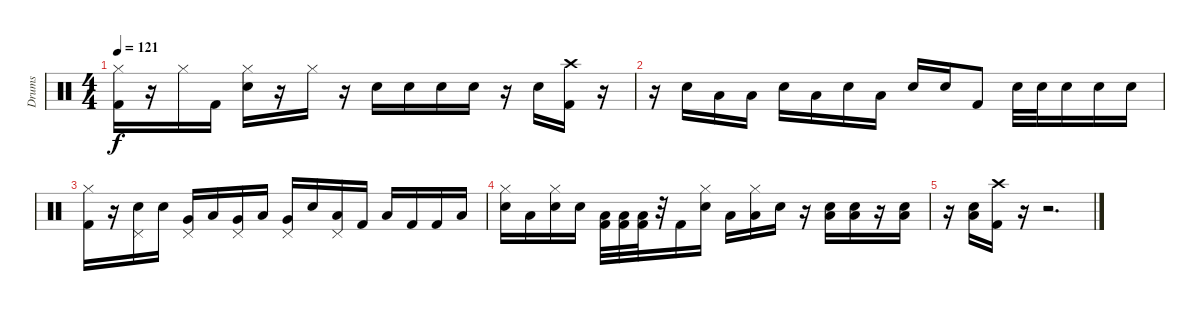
\track ("Drums" "Drums") {instrument percussion}
\staff {score}
\articulation defaults
\ts (4 4)
\tempo 121
\clef neutral
\ks c
("Hi-Hat (closed)" "Kick (hit) 2").16{dy f} r.16 "Hi-Hat (closed)".16 "Kick (hit) 2".16 ("Hi-Hat (closed)" "Snare (hit) 2").16 r.16 "Hi-Hat (closed)".16 r.16 "Snare (hit) 2".16 "Snare (hit) 2".16 "Snare (hit) 2".16 "Snare (hit) 2".16 r.16 "Snare (hit) 2".16 ("Crash high (hit)" "Kick (hit) 2").16 r.16 |
r.16 "Snare (hit) 2".16 "Low Tom (hit)".16 "Low Tom (hit)".16 "Snare (hit) 2".16 "Low Tom (hit)".16 "Snare (hit) 2".16 "Low Tom (hit)".16 "Snare (hit) 2".16 "Snare (hit) 2".16 "Kick (hit) 2".8 "Snare (hit) 2".32 "Snare (hit) 2".32 "Snare (hit) 2".16 "Snare (hit) 2".16 "Snare (hit) 2".16 |
("Hi-Hat (closed)" "Kick (hit) 2").16 r.16 ("Pedal Hi-Hat (hit)" "Snare (hit) 2").16 "Snare (hit) 2".16 ("Pedal Hi-Hat (hit)" "Very Low Tom (hit)").16 "Low Tom (hit)".16 ("Pedal Hi-Hat (hit)" "Very Low Tom (hit)").16 "Low Tom (hit)".16 ("Pedal Hi-Hat (hit)" "Very Low Tom (hit)").16 "Snare (hit) 2".16 ("Pedal Hi-Hat (hit)" "Low Tom (hit)").16 "Kick (hit) 2".16 "Low Tom (hit)".16 "Kick (hit) 2".16 "Kick (hit) 2".16 "Low Tom (hit)".16 |
("Hi-Hat (closed)" "Snare (hit) 2").16 "Low Tom (hit)".16 ("Hi-Hat (closed)" "Snare (hit) 2").16 "Snare (hit) 2".16 ("Low Tom (hit)" "Kick (hit) 2").32 ("Low Tom (hit)" "Kick (hit) 2").32 ("Low Tom (hit)" "Kick (hit) 2").32 r.32 "Kick (hit) 2".16 ("Hi-Hat (closed)" "Snare (hit) 2").16 "Low Tom (hit)".16 ("Hi-Hat (closed)" "Low Tom (hit)").16 "Snare (hit) 2".16 r.16 ("Low Tom (hit)" "Snare (hit) 2").16 ("Low Tom (hit)" "Snare (hit) 2").16 r.16 ("Low Tom (hit)" "Snare (hit) 2").16 |
r.16 ("Low Tom (hit)" "Snare (hit) 2").16 ("Crash high (hit)" "Kick (hit) 2").16 r.16 r.2{d}
